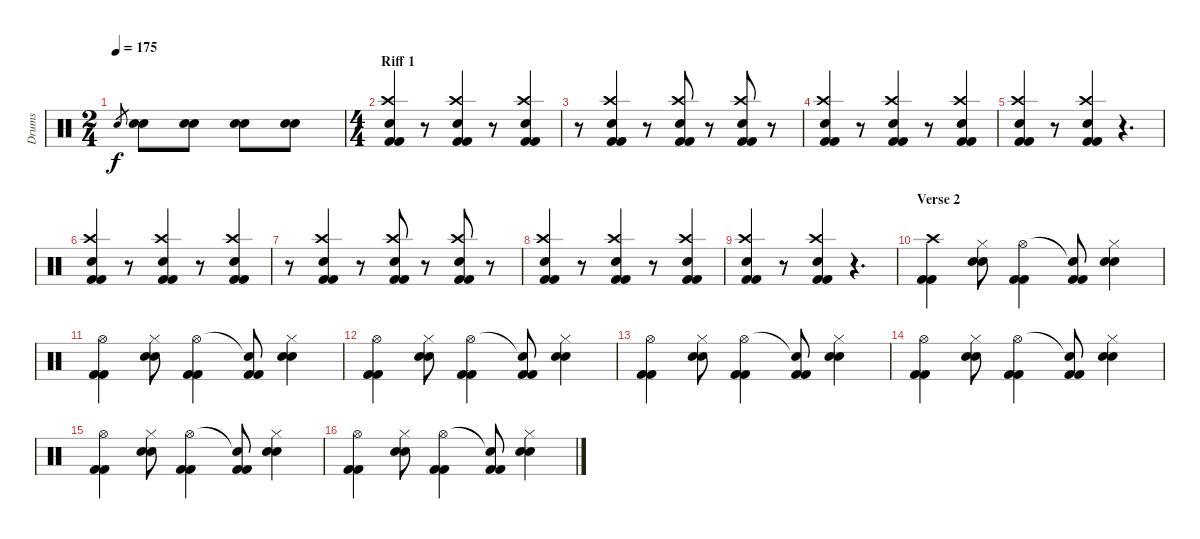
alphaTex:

\track ("Drums" "Drums") {instrument percussion}
\staff {score}
\articulation defaults
\ts (2 4)
\tempo 175
\clef neutral
\ks c "Snare (hit) 2".8{gr dy f}
("Snare (hit) 2" "Snare (hit) 2").8 ("Snare (hit) 2" "Snare (hit) 2").8 ("Snare (hit) 2" "Snare (hit) 2").8 ("Snare (hit) 2" "Snare (hit) 2").8 |
\ts (4 4)
\section ("" "Riff 1")
("Crash high (hit)" "Snare (hit) 2" "Kick (hit) 2" "Kick (hit) 2").4 r.8 ("Crash high (hit)" "Snare (hit) 2" "Kick (hit) 2" "Kick (hit) 2").4 r.8 ("Crash high (hit)" "Snare (hit) 2" "Kick (hit) 2" "Kick (hit) 2").4 |
r.8 ("Crash high (hit)" "Snare (hit) 2" "Kick (hit) 2" "Kick (hit) 2").4 r.8 ("Crash high (hit)" "Snare (hit) 2" "Kick (hit) 2" "Kick (hit) 2").8 r.8 ("Crash high (hit)" "Snare (hit) 2" "Kick (hit) 2" "Kick (hit) 2").8 r.8 |
("Crash high (hit)" "Snare (hit) 2" "Kick (hit) 2" "Kick (hit) 2").4 r.8 ("Crash high (hit)" "Snare (hit) 2" "Kick (hit) 2" "Kick (hit) 2").4 r.8 ("Crash high (hit)" "Snare (hit) 2" "Kick (hit) 2" "Kick (hit) 2").4 |
("Crash high (hit)" "Snare (hit) 2" "Kick (hit) 2" "Kick (hit) 2").4 r.8 ("Crash high (hit)" "Snare (hit) 2" "Kick (hit) 2" "Kick (hit) 2").4 r.4{d} |
("Crash high (hit)" "Snare (hit) 2" "Kick (hit) 2" "Kick (hit) 2").4 r.8 ("Crash high (hit)" "Snare (hit) 2" "Kick (hit) 2" "Kick (hit) 2").4 r.8 ("Crash high (hit)" "Snare (hit) 2" "Kick (hit) 2" "Kick (hit) 2").4 |
r.8 ("Crash high (hit)" "Snare (hit) 2" "Kick (hit) 2" "Kick (hit) 2").4 r.8 ("Crash high (hit)" "Snare (hit) 2" "Kick (hit) 2" "Kick (hit) 2").8 r.8 ("Crash high (hit)" "Snare (hit) 2" "Kick (hit) 2" "Kick (hit) 2").8 r.8 |
("Crash high (hit)" "Snare (hit) 2" "Kick (hit) 2" "Kick (hit) 2").4 r.8 ("Crash high (hit)" "Snare (hit) 2" "Kick (hit) 2" "Kick (hit) 2").4 r.8 ("Crash high (hit)" "Snare (hit) 2" "Kick (hit) 2" "Kick (hit) 2").4 |
("Crash high (hit)" "Snare (hit) 2" "Kick (hit) 2" "Kick (hit) 2").4 r.8 ("Crash high (hit)" "Snare (hit) 2" "Kick (hit) 2" "Kick (hit) 2").4 r.4{d} |
\section ("" "Verse 2")
("Crash high (hit)" "Kick (hit) 2" "Kick (hit) 2").4 ("Hi-Hat (closed)" "Snare (hit) 2" "Snare (hit) 2").8 ("Hi-Hat (open)" "Kick (hit) 2" "Kick (hit) 2").4 ("Snare (hit)"{t} "Kick (hit) 2" "Kick (hit) 2").8 ("Hi-Hat (closed)" "Snare (hit) 2" "Snare (hit) 2").4 |
("Hi-Hat (open)" "Kick (hit) 2" "Kick (hit) 2").4 ("Hi-Hat (closed)" "Snare (hit) 2" "Snare (hit) 2").8 ("Hi-Hat (open)" "Kick (hit) 2" "Kick (hit) 2").4 ("Snare (hit)"{t} "Kick (hit) 2" "Kick (hit) 2").8 ("Hi-Hat (closed)" "Snare (hit) 2" "Snare (hit) 2").4 |
("Hi-Hat (open)" "Kick (hit) 2" "Kick (hit) 2").4 ("Hi-Hat (closed)" "Snare (hit) 2" "Snare (hit) 2").8 ("Hi-Hat (open)" "Kick (hit) 2" "Kick (hit) 2").4 ("Snare (hit)"{t} "Kick (hit) 2" "Kick (hit) 2").8 ("Hi-Hat (closed)" "Snare (hit) 2" "Snare (hit) 2").4 |
("Hi-Hat (open)" "Kick (hit) 2" "Kick (hit) 2").4 ("Hi-Hat (closed)" "Snare (hit) 2" "Snare (hit) 2").8 ("Hi-Hat (open)" "Kick (hit) 2" "Kick (hit) 2").4 ("Snare (hit)"{t} "Kick (hit) 2" "Kick (hit) 2").8 ("Hi-Hat (closed)" "Snare (hit) 2" "Snare (hit) 2").4 |
("Hi-Hat (open)" "Kick (hit) 2" "Kick (hit) 2").4 ("Hi-Hat (closed)" "Snare (hit) 2" "Snare (hit) 2").8 ("Hi-Hat (open)" "Kick (hit) 2" "Kick (hit) 2").4 ("Snare (hit)"{t} "Kick (hit) 2" "Kick (hit) 2").8 ("Hi-Hat (closed)" "Snare (hit) 2" "Snare (hit) 2").4 |
("Hi-Hat (open)" "Kick (hit) 2" "Kick (hit) 2").4 ("Hi-Hat (closed)" "Snare (hit) 2" "Snare (hit) 2").8 ("Hi-Hat (open)" "Kick (hit) 2" "Kick (hit) 2").4 ("Snare (hit)"{t} "Kick (hit) 2" "Kick (hit) 2").8 ("Hi-Hat (closed)" "Snare (hit) 2" "Snare (hit) 2").4 |
("Hi-Hat (open)" "Kick (hit) 2" "Kick (hit) 2").4 ("Hi-Hat (closed)" "Snare (hit) 2" "Snare (hit) 2").8 ("Hi-Hat (open)" "Kick (hit) 2" "Kick (hit) 2").4 ("Snare (hit)"{t} "Kick (hit) 2" "Kick (hit) 2").8 ("Hi-Hat (closed)" "Snare (hit) 2" "Snare (hit) 2").4
